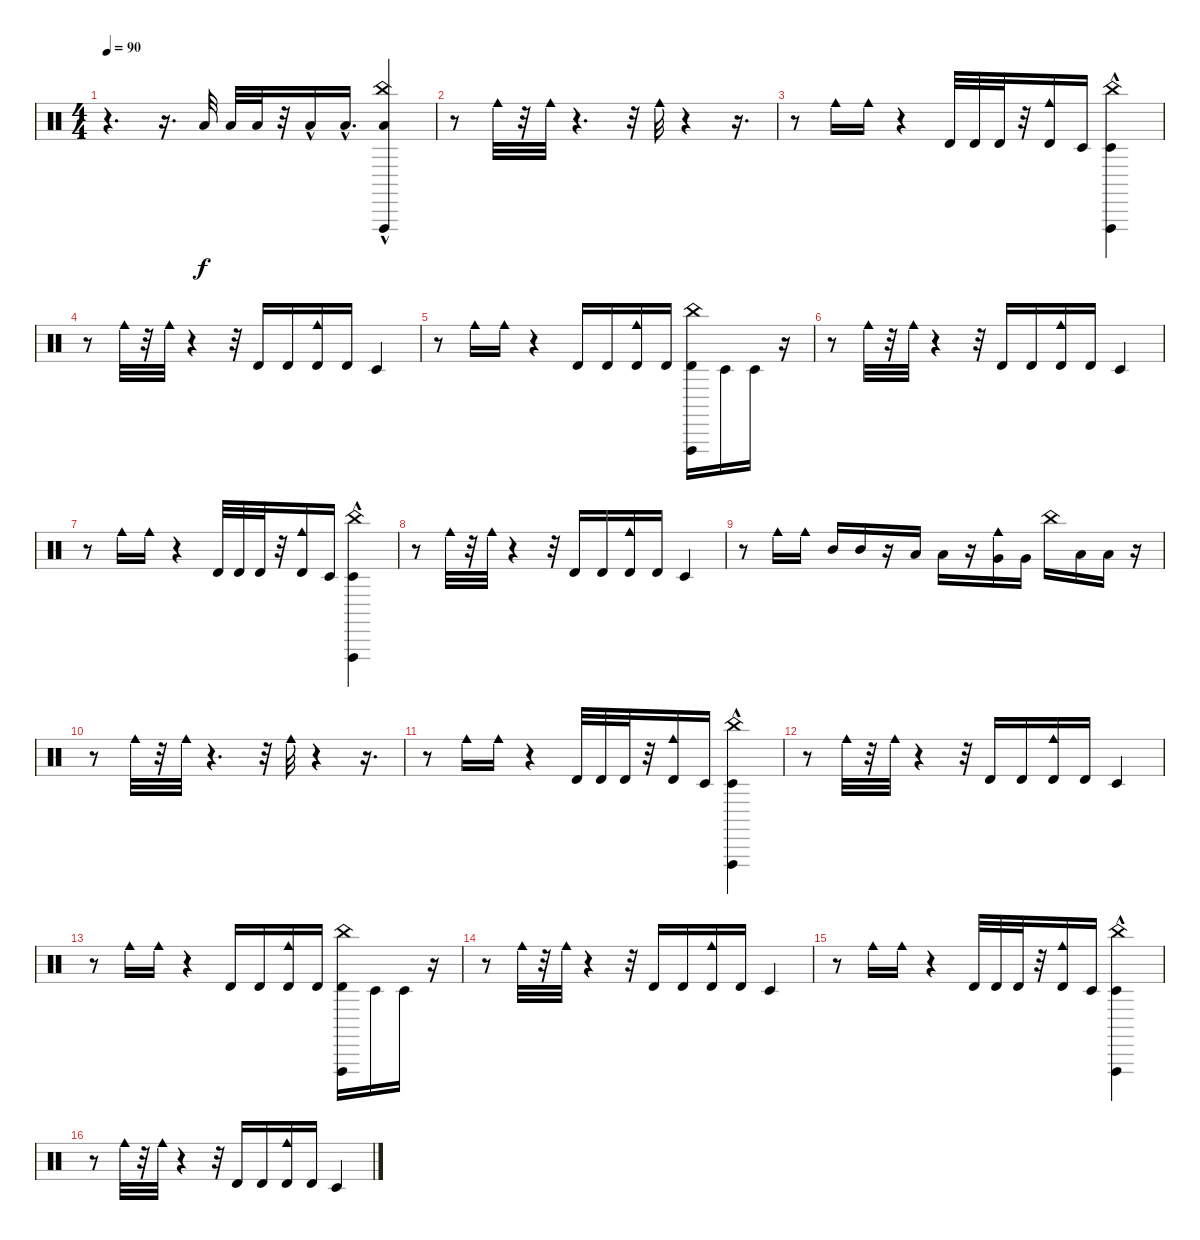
\track "" {instrument percussion}
\staff {score}
\articulation defaults
\ts (4 4)
\tempo 90
\clef neutral
\ks c
r.4{d dy f} r.16{d} "Low Tom (hit)".32 "Low Tom (hit)".32 "Low Tom (hit)".32 r.32 "Low Tom (hit)"{hac}.16 "Low Tom (hit)"{hac}.16{d} ("China (hit)" "Low Tom (hit)" "Vibraslap (hit)"{hac}).4 |
r.8 "Cowbell medium (hit)".32 r.32 "Cowbell medium (hit)".32 r.4{d} r.32 "Cowbell medium (hit)".32 r.4 r.16{d} |
r.8 "Cowbell medium (hit)".16 "Cowbell medium (hit)".16 r.4 "Timbale high (hit)".32 "Timbale high (hit)".32 "Timbale high (hit)".32 r.32 ("Timbale high (hit)" "Cowbell medium (hit)").16 "Timbale low (hit)".16 ("Timbale low (hit)" "Vibraslap (hit)"{hac} "China (hit)").4 |
r.8 "Cowbell medium (hit)".32 r.32 "Cowbell medium (hit)".32 r.4 r.32 "Timbale high (hit)".16 "Timbale high (hit)".16 ("Timbale high (hit)" "Cowbell medium (hit)").16 "Timbale high (hit)".16 "Timbale low (hit)".4 |
r.8 "Cowbell medium (hit)".16 "Cowbell medium (hit)".16 r.4 "Timbale high (hit)".16 "Timbale high (hit)".16 ("Timbale high (hit)" "Cowbell medium (hit)").16 "Timbale high (hit)".16 ("China (hit)" "Vibraslap (hit)" "Timbale high (hit)").16 "Timbale low (hit)".16 "Timbale low (hit)".16 r.16 |
r.8 "Cowbell medium (hit)".32 r.32 "Cowbell medium (hit)".32 r.4 r.32 "Timbale high (hit)".16 "Timbale high (hit)".16 ("Cowbell medium (hit)" "Timbale high (hit)").16 "Timbale high (hit)".16 "Timbale low (hit)".4 |
r.8 "Cowbell medium (hit)".16 "Cowbell medium (hit)".16 r.4 "Timbale high (hit)".32 "Timbale high (hit)".32 "Timbale high (hit)".32 r.32 ("Timbale high (hit)" "Cowbell medium (hit)").16 "Timbale low (hit)".16 ("Timbale low (hit)" "Vibraslap (hit)"{hac} "China (hit)").4 |
r.8 "Cowbell medium (hit)".32 r.32 "Cowbell medium (hit)".32 r.4 r.32 "Timbale high (hit)".16 "Timbale high (hit)".16 ("Timbale high (hit)" "Cowbell medium (hit)").16 "Timbale high (hit)".16 "Timbale low (hit)".4 |
r.8 "Cowbell medium (hit)".16 "Cowbell medium (hit)".16 "Mid Tom (hit)".16 "Mid Tom (hit)".16 r.16 "Low Tom (hit)".16 "Low Tom (hit)".16 r.16 ("Very Low Tom (hit)" "Cowbell medium (hit)").16 "Very Low Tom (hit)".16 "China (hit)".16 "Low Floor Tom (hit)".16 "Low Floor Tom (hit)".16 r.16 |
r.8 "Cowbell medium (hit)".32 r.32 "Cowbell medium (hit)".32 r.4{d} r.32 "Cowbell medium (hit)".32 r.4 r.16{d} |
r.8 "Cowbell medium (hit)".16 "Cowbell medium (hit)".16 r.4 "Timbale high (hit)".32 "Timbale high (hit)".32 "Timbale high (hit)".32 r.32 ("Timbale high (hit)" "Cowbell medium (hit)").16 "Timbale low (hit)".16 ("Timbale low (hit)" "Vibraslap (hit)"{hac} "China (hit)").4 |
r.8 "Cowbell medium (hit)".32 r.32 "Cowbell medium (hit)".32 r.4 r.32 "Timbale high (hit)".16 "Timbale high (hit)".16 ("Timbale high (hit)" "Cowbell medium (hit)").16 "Timbale high (hit)".16 "Timbale low (hit)".4 |
r.8 "Cowbell medium (hit)".16 "Cowbell medium (hit)".16 r.4 "Timbale high (hit)".16 "Timbale high (hit)".16 ("Timbale high (hit)" "Cowbell medium (hit)").16 "Timbale high (hit)".16 ("China (hit)" "Vibraslap (hit)" "Timbale high (hit)").16 "Timbale low (hit)".16 "Timbale low (hit)".16 r.16 |
r.8 "Cowbell medium (hit)".32 r.32 "Cowbell medium (hit)".32 r.4 r.32 "Timbale high (hit)".16 "Timbale high (hit)".16 ("Cowbell medium (hit)" "Timbale high (hit)").16 "Timbale high (hit)".16 "Timbale low (hit)".4 |
r.8 "Cowbell medium (hit)".16 "Cowbell medium (hit)".16 r.4 "Timbale high (hit)".32 "Timbale high (hit)".32 "Timbale high (hit)".32 r.32 ("Timbale high (hit)" "Cowbell medium (hit)").16 "Timbale low (hit)".16 ("Timbale low (hit)" "Vibraslap (hit)"{hac} "China (hit)").4 |
r.8 "Cowbell medium (hit)".32 r.32 "Cowbell medium (hit)".32 r.4 r.32 "Timbale high (hit)".16 "Timbale high (hit)".16 ("Timbale high (hit)" "Cowbell medium (hit)").16 "Timbale high (hit)".16 "Timbale low (hit)".4
